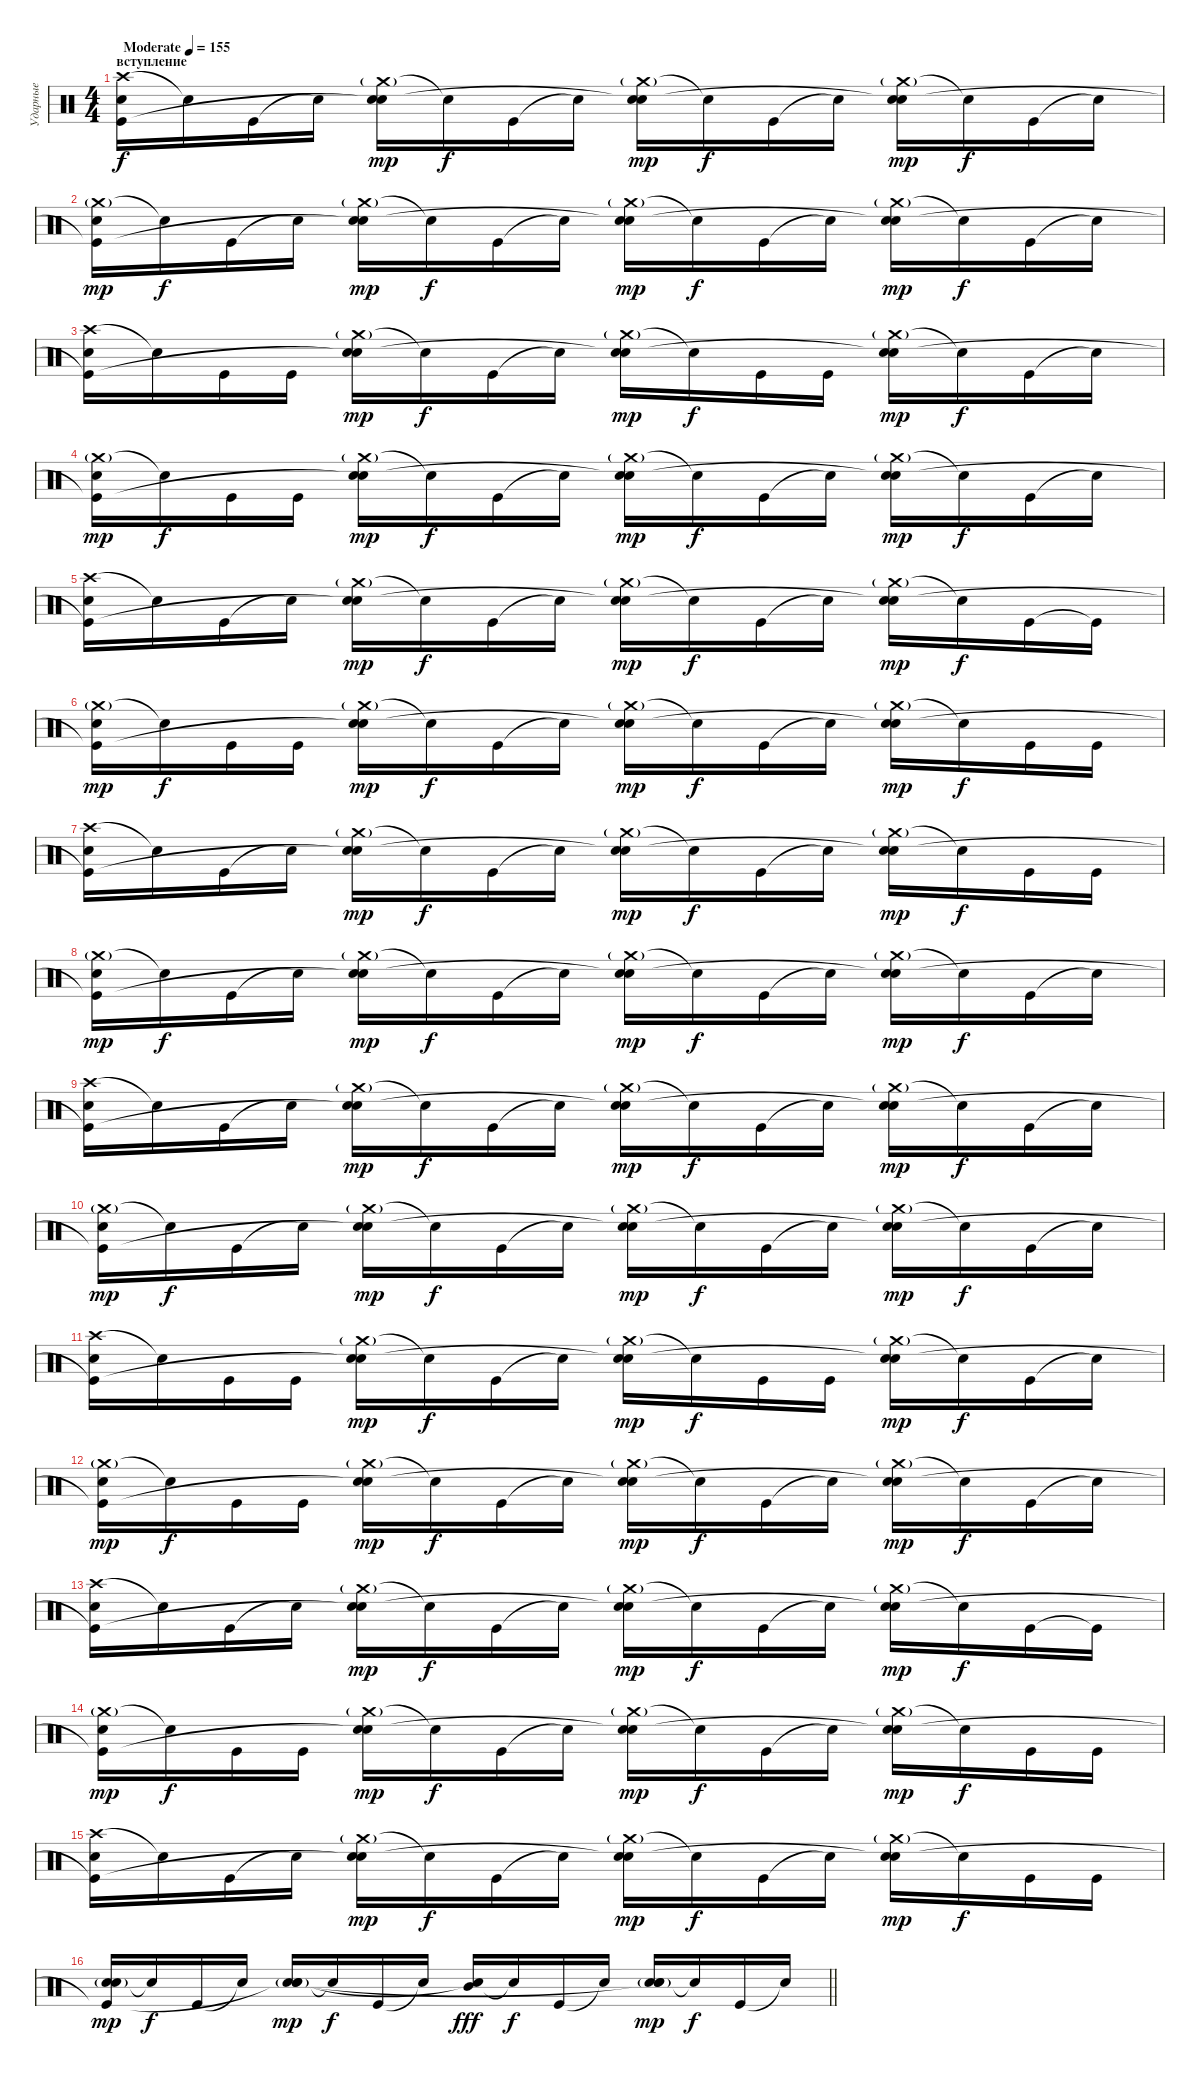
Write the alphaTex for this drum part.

\track ("Ударные" "Ударные") {instrument percussion}
\staff {score}
\articulation defaults
\ts (4 4)
\section ("" "вступление")
\tempo (155 "Moderate")
\clef neutral
\ks c
("Crash high (hit)" "Electric Snare (hit)" "Kick (hit)").16{dy f} "Snare (hit)"{t}.16 "Kick (hit)".16 "Snare (hit)"{t}.16 ("Crash medium (hit)"{g} "Electric Snare (hit)" "Snare (hit)"{t}).16{dy mp} "Snare (hit)"{t}.16{dy f} "Kick (hit)".16 "Snare (hit)"{t}.16 ("Crash medium (hit)"{g} "Electric Snare (hit)" "Snare (hit)"{t}).16{dy mp} "Snare (hit)"{t}.16{dy f} "Kick (hit)".16 "Snare (hit)"{t}.16 ("Crash medium (hit)"{g} "Electric Snare (hit)" "Snare (hit)"{t}).16{dy mp} "Snare (hit)"{t}.16{dy f} "Kick (hit)".16 "Snare (hit)"{t}.16 |
("Crash medium (hit)"{g} "Electric Snare (hit)" "Kick (hit)"{t}).16{dy mp} "Snare (hit)"{t}.16{dy f} "Kick (hit)".16 "Snare (hit)"{t}.16 ("Crash medium (hit)"{g} "Electric Snare (hit)" "Snare (hit)"{t}).16{dy mp} "Snare (hit)"{t}.16{dy f} "Kick (hit)".16 "Snare (hit)"{t}.16 ("Crash medium (hit)"{g} "Electric Snare (hit)" "Snare (hit)"{t}).16{dy mp} "Snare (hit)"{t}.16{dy f} "Kick (hit)".16 "Snare (hit)"{t}.16 ("Crash medium (hit)"{g} "Electric Snare (hit)" "Snare (hit)"{t}).16{dy mp} "Snare (hit)"{t}.16{dy f} "Kick (hit)".16 "Snare (hit)"{t}.16 |
("Crash high (hit)" "Electric Snare (hit)" "Kick (hit)"{t}).16 "Snare (hit)"{t}.16 "Kick (hit)".16 "Kick (hit)".16 ("Crash medium (hit)"{g} "Electric Snare (hit)" "Snare (hit)"{t}).16{dy mp} "Snare (hit)"{t}.16{dy f} "Kick (hit)".16 "Snare (hit)"{t}.16 ("Crash medium (hit)"{g} "Electric Snare (hit)" "Snare (hit)"{t}).16{dy mp} "Snare (hit)"{t}.16{dy f} "Kick (hit)".16 "Kick (hit)".16 ("Crash medium (hit)"{g} "Electric Snare (hit)" "Snare (hit)"{t}).16{dy mp} "Snare (hit)"{t}.16{dy f} "Kick (hit)".16 "Snare (hit)"{t}.16 |
("Crash medium (hit)"{g} "Electric Snare (hit)" "Kick (hit)"{t}).16{dy mp} "Snare (hit)"{t}.16{dy f} "Kick (hit)".16 "Kick (hit)".16 ("Crash medium (hit)"{g} "Electric Snare (hit)" "Snare (hit)"{t}).16{dy mp} "Snare (hit)"{t}.16{dy f} "Kick (hit)".16 "Snare (hit)"{t}.16 ("Crash medium (hit)"{g} "Electric Snare (hit)" "Snare (hit)"{t}).16{dy mp} "Snare (hit)"{t}.16{dy f} "Kick (hit)".16 "Snare (hit)"{t}.16 ("Crash medium (hit)"{g} "Electric Snare (hit)" "Snare (hit)"{t}).16{dy mp} "Snare (hit)"{t}.16{dy f} "Kick (hit)".16 "Snare (hit)"{t}.16 |
("Crash high (hit)" "Electric Snare (hit)" "Kick (hit)"{t}).16 "Snare (hit)"{t}.16 "Kick (hit)".16 "Snare (hit)"{t}.16 ("Crash medium (hit)"{g} "Electric Snare (hit)" "Snare (hit)"{t}).16{dy mp} "Snare (hit)"{t}.16{dy f} "Kick (hit)".16 "Snare (hit)"{t}.16 ("Crash medium (hit)"{g} "Electric Snare (hit)" "Snare (hit)"{t}).16{dy mp} "Snare (hit)"{t}.16{dy f} "Kick (hit)".16 "Snare (hit)"{t}.16 ("Crash medium (hit)"{g} "Electric Snare (hit)" "Snare (hit)"{t}).16{dy mp} "Snare (hit)"{t}.16{dy f} "Kick (hit)".16 "Kick (hit)"{t}.16 |
("Crash medium (hit)"{g} "Electric Snare (hit)" "Kick (hit)"{t}).16{dy mp} "Snare (hit)"{t}.16{dy f} "Kick (hit)".16 "Kick (hit)".16 ("Crash medium (hit)"{g} "Electric Snare (hit)" "Snare (hit)"{t}).16{dy mp} "Snare (hit)"{t}.16{dy f} "Kick (hit)".16 "Snare (hit)"{t}.16 ("Crash medium (hit)"{g} "Electric Snare (hit)" "Snare (hit)"{t}).16{dy mp} "Snare (hit)"{t}.16{dy f} "Kick (hit)".16 "Snare (hit)"{t}.16 ("Crash medium (hit)"{g} "Electric Snare (hit)" "Snare (hit)"{t}).16{dy mp} "Snare (hit)"{t}.16{dy f} "Kick (hit)".16 "Kick (hit)".16 |
("Crash high (hit)" "Electric Snare (hit)" "Kick (hit)"{t}).16 "Snare (hit)"{t}.16 "Kick (hit)".16 "Snare (hit)"{t}.16 ("Crash medium (hit)"{g} "Electric Snare (hit)" "Snare (hit)"{t}).16{dy mp} "Snare (hit)"{t}.16{dy f} "Kick (hit)".16 "Snare (hit)"{t}.16 ("Crash medium (hit)"{g} "Electric Snare (hit)" "Snare (hit)"{t}).16{dy mp} "Snare (hit)"{t}.16{dy f} "Kick (hit)".16 "Snare (hit)"{t}.16 ("Crash medium (hit)"{g} "Electric Snare (hit)" "Snare (hit)"{t}).16{dy mp} "Snare (hit)"{t}.16{dy f} "Kick (hit)".16 "Kick (hit)".16 |
("Crash medium (hit)"{g} "Electric Snare (hit)" "Kick (hit)"{t}).16{dy mp} "Snare (hit)"{t}.16{dy f} "Kick (hit)".16 "Snare (hit)"{t}.16 ("Crash medium (hit)"{g} "Electric Snare (hit)" "Snare (hit)"{t}).16{dy mp} "Snare (hit)"{t}.16{dy f} "Kick (hit)".16 "Snare (hit)"{t}.16 ("Crash medium (hit)"{g} "Electric Snare (hit)" "Snare (hit)"{t}).16{dy mp} "Snare (hit)"{t}.16{dy f} "Kick (hit)".16 "Snare (hit)"{t}.16 ("Crash medium (hit)"{g} "Electric Snare (hit)" "Snare (hit)"{t}).16{dy mp} "Snare (hit)"{t}.16{dy f} "Kick (hit)".16 "Snare (hit)"{t}.16 |
("Crash high (hit)" "Electric Snare (hit)" "Kick (hit)"{t}).16 "Snare (hit)"{t}.16 "Kick (hit)".16 "Snare (hit)"{t}.16 ("Crash medium (hit)"{g} "Electric Snare (hit)" "Snare (hit)"{t}).16{dy mp} "Snare (hit)"{t}.16{dy f} "Kick (hit)".16 "Snare (hit)"{t}.16 ("Crash medium (hit)"{g} "Electric Snare (hit)" "Snare (hit)"{t}).16{dy mp} "Snare (hit)"{t}.16{dy f} "Kick (hit)".16 "Snare (hit)"{t}.16 ("Crash medium (hit)"{g} "Electric Snare (hit)" "Snare (hit)"{t}).16{dy mp} "Snare (hit)"{t}.16{dy f} "Kick (hit)".16 "Snare (hit)"{t}.16 |
("Crash medium (hit)"{g} "Electric Snare (hit)" "Kick (hit)"{t}).16{dy mp} "Snare (hit)"{t}.16{dy f} "Kick (hit)".16 "Snare (hit)"{t}.16 ("Crash medium (hit)"{g} "Electric Snare (hit)" "Snare (hit)"{t}).16{dy mp} "Snare (hit)"{t}.16{dy f} "Kick (hit)".16 "Snare (hit)"{t}.16 ("Crash medium (hit)"{g} "Electric Snare (hit)" "Snare (hit)"{t}).16{dy mp} "Snare (hit)"{t}.16{dy f} "Kick (hit)".16 "Snare (hit)"{t}.16 ("Crash medium (hit)"{g} "Electric Snare (hit)" "Snare (hit)"{t}).16{dy mp} "Snare (hit)"{t}.16{dy f} "Kick (hit)".16 "Snare (hit)"{t}.16 |
("Crash high (hit)" "Electric Snare (hit)" "Kick (hit)"{t}).16 "Snare (hit)"{t}.16 "Kick (hit)".16 "Kick (hit)".16 ("Crash medium (hit)"{g} "Electric Snare (hit)" "Snare (hit)"{t}).16{dy mp} "Snare (hit)"{t}.16{dy f} "Kick (hit)".16 "Snare (hit)"{t}.16 ("Crash medium (hit)"{g} "Electric Snare (hit)" "Snare (hit)"{t}).16{dy mp} "Snare (hit)"{t}.16{dy f} "Kick (hit)".16 "Kick (hit)".16 ("Crash medium (hit)"{g} "Electric Snare (hit)" "Snare (hit)"{t}).16{dy mp} "Snare (hit)"{t}.16{dy f} "Kick (hit)".16 "Snare (hit)"{t}.16 |
("Crash medium (hit)"{g} "Electric Snare (hit)" "Kick (hit)"{t}).16{dy mp} "Snare (hit)"{t}.16{dy f} "Kick (hit)".16 "Kick (hit)".16 ("Crash medium (hit)"{g} "Electric Snare (hit)" "Snare (hit)"{t}).16{dy mp} "Snare (hit)"{t}.16{dy f} "Kick (hit)".16 "Snare (hit)"{t}.16 ("Crash medium (hit)"{g} "Electric Snare (hit)" "Snare (hit)"{t}).16{dy mp} "Snare (hit)"{t}.16{dy f} "Kick (hit)".16 "Snare (hit)"{t}.16 ("Crash medium (hit)"{g} "Electric Snare (hit)" "Snare (hit)"{t}).16{dy mp} "Snare (hit)"{t}.16{dy f} "Kick (hit)".16 "Snare (hit)"{t}.16 |
("Crash high (hit)" "Electric Snare (hit)" "Kick (hit)"{t}).16 "Snare (hit)"{t}.16 "Kick (hit)".16 "Snare (hit)"{t}.16 ("Crash medium (hit)"{g} "Electric Snare (hit)" "Snare (hit)"{t}).16{dy mp} "Snare (hit)"{t}.16{dy f} "Kick (hit)".16 "Snare (hit)"{t}.16 ("Crash medium (hit)"{g} "Electric Snare (hit)" "Snare (hit)"{t}).16{dy mp} "Snare (hit)"{t}.16{dy f} "Kick (hit)".16 "Snare (hit)"{t}.16 ("Crash medium (hit)"{g} "Electric Snare (hit)" "Snare (hit)"{t}).16{dy mp} "Snare (hit)"{t}.16{dy f} "Kick (hit)".16 "Kick (hit)"{t}.16 |
("Crash medium (hit)"{g} "Electric Snare (hit)" "Kick (hit)"{t}).16{dy mp} "Snare (hit)"{t}.16{dy f} "Kick (hit)".16 "Kick (hit)".16 ("Crash medium (hit)"{g} "Electric Snare (hit)" "Snare (hit)"{t}).16{dy mp} "Snare (hit)"{t}.16{dy f} "Kick (hit)".16 "Snare (hit)"{t}.16 ("Crash medium (hit)"{g} "Electric Snare (hit)" "Snare (hit)"{t}).16{dy mp} "Snare (hit)"{t}.16{dy f} "Kick (hit)".16 "Snare (hit)"{t}.16 ("Crash medium (hit)"{g} "Electric Snare (hit)" "Snare (hit)"{t}).16{dy mp} "Snare (hit)"{t}.16{dy f} "Kick (hit)".16 "Kick (hit)".16 |
("Crash high (hit)" "Electric Snare (hit)" "Kick (hit)"{t}).16 "Snare (hit)"{t}.16 "Kick (hit)".16 "Snare (hit)"{t}.16 ("Crash medium (hit)"{g} "Electric Snare (hit)" "Snare (hit)"{t}).16{dy mp} "Snare (hit)"{t}.16{dy f} "Kick (hit)".16 "Snare (hit)"{t}.16 ("Crash medium (hit)"{g} "Electric Snare (hit)" "Snare (hit)"{t}).16{dy mp} "Snare (hit)"{t}.16{dy f} "Kick (hit)".16 "Snare (hit)"{t}.16 ("Crash medium (hit)"{g} "Electric Snare (hit)" "Snare (hit)"{t}).16{dy mp} "Snare (hit)"{t}.16{dy f} "Kick (hit)".16 "Kick (hit)".16 |
\barLineRight lightlight
("Electric Snare (hit)"{g} "Electric Snare (hit)" "Kick (hit)"{t}).16{bd 480 dy mp} "Snare (hit)"{t}.16{dy f} "Kick (hit)".16 "Snare (hit)"{t}.16 ("Electric Snare (hit)"{g} "Electric Snare (hit)" "Snare (hit)"{t}).16{bd 480 dy mp} "Snare (hit)"{t}.16{dy f} "Kick (hit)".16 "Snare (hit)"{t}.16 ("Mid Tom (hit)" "Snare (hit)"{t}).16{dy fff} "Snare (hit)"{t}.16{dy f} "Kick (hit)".16 "Snare (hit)"{t}.16 ("Electric Snare (hit)"{g} "Electric Snare (hit)" "Snare (hit)"{t}).16{bd 480 dy mp} "Snare (hit)"{t}.16{dy f} "Kick (hit)".16 "Snare (hit)"{t}.16
